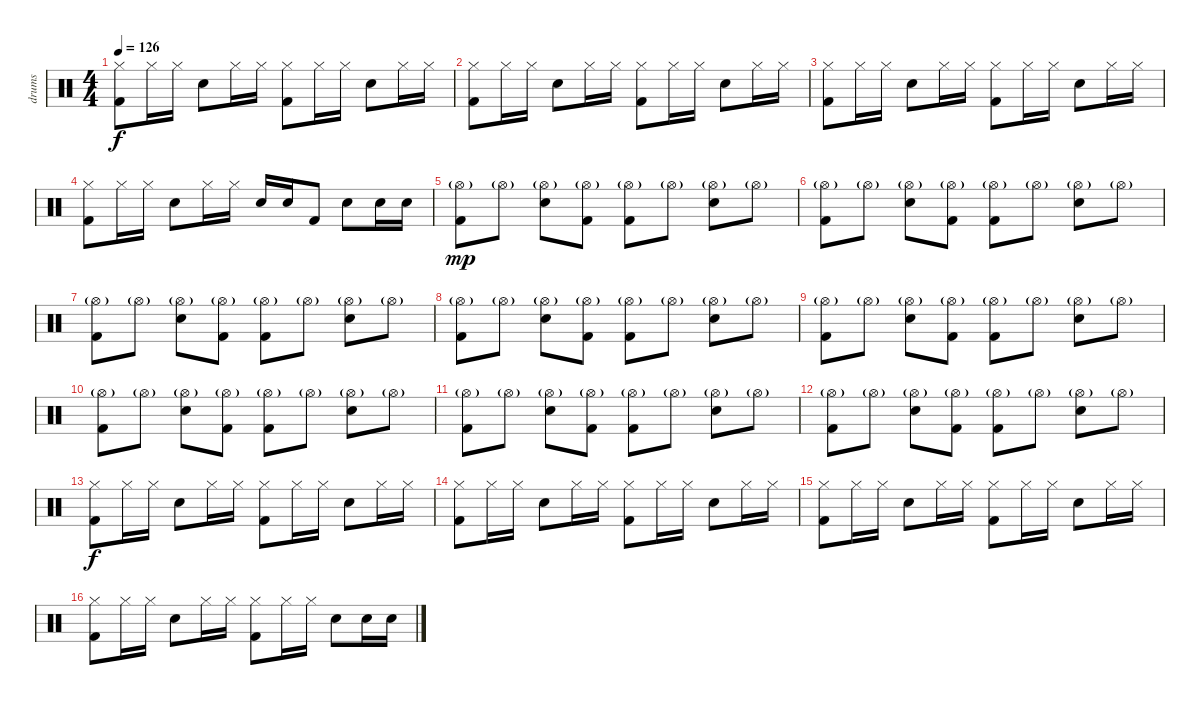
\track ("drums" "drums") {instrument percussion}
\staff {score}
\articulation defaults
\ts (4 4)
\tempo 126
\clef neutral
\ks c
("Hi-Hat (closed)" "Kick (hit) 2").8{dy f} "Hi-Hat (closed)".16 "Hi-Hat (closed)".16 "Snare (hit) 2".8 "Hi-Hat (closed)".16 "Hi-Hat (closed)".16 ("Hi-Hat (closed)" "Kick (hit) 2").8 "Hi-Hat (closed)".16 "Hi-Hat (closed)".16 "Snare (hit) 2".8 "Hi-Hat (closed)".16 "Hi-Hat (closed)".16 |
("Hi-Hat (closed)" "Kick (hit) 2").8 "Hi-Hat (closed)".16 "Hi-Hat (closed)".16 "Snare (hit) 2".8 "Hi-Hat (closed)".16 "Hi-Hat (closed)".16 ("Hi-Hat (closed)" "Kick (hit) 2").8 "Hi-Hat (closed)".16 "Hi-Hat (closed)".16 "Snare (hit) 2".8 "Hi-Hat (closed)".16 "Hi-Hat (closed)".16 |
("Hi-Hat (closed)" "Kick (hit) 2").8 "Hi-Hat (closed)".16 "Hi-Hat (closed)".16 "Snare (hit) 2".8 "Hi-Hat (closed)".16 "Hi-Hat (closed)".16 ("Hi-Hat (closed)" "Kick (hit) 2").8 "Hi-Hat (closed)".16 "Hi-Hat (closed)".16 "Snare (hit) 2".8 "Hi-Hat (closed)".16 "Hi-Hat (closed)".16 |
("Hi-Hat (closed)" "Kick (hit) 2").8 "Hi-Hat (closed)".16 "Hi-Hat (closed)".16 "Snare (hit) 2".8 "Hi-Hat (closed)".16 "Hi-Hat (closed)".16 "Snare (hit) 2".16 "Snare (hit) 2".16 "Kick (hit) 2".8 "Snare (hit) 2".8 "Snare (hit) 2".16 "Snare (hit) 2".16 |
("Hi-Hat (open)"{g} "Kick (hit) 2").8{dy mp} "Hi-Hat (open)"{g}.8 ("Hi-Hat (open)"{g} "Snare (hit) 2").8 ("Hi-Hat (open)"{g} "Kick (hit) 2").8 ("Hi-Hat (open)"{g} "Kick (hit) 2").8 "Hi-Hat (open)"{g}.8 ("Hi-Hat (open)"{g} "Snare (hit) 2").8 "Hi-Hat (open)"{g}.8 |
("Hi-Hat (open)"{g} "Kick (hit) 2").8 "Hi-Hat (open)"{g}.8 ("Hi-Hat (open)"{g} "Snare (hit) 2").8 ("Hi-Hat (open)"{g} "Kick (hit) 2").8 ("Hi-Hat (open)"{g} "Kick (hit) 2").8 "Hi-Hat (open)"{g}.8 ("Hi-Hat (open)"{g} "Snare (hit) 2").8 "Hi-Hat (open)"{g}.8 |
("Hi-Hat (open)"{g} "Kick (hit) 2").8 "Hi-Hat (open)"{g}.8 ("Hi-Hat (open)"{g} "Snare (hit) 2").8 ("Hi-Hat (open)"{g} "Kick (hit) 2").8 ("Hi-Hat (open)"{g} "Kick (hit) 2").8 "Hi-Hat (open)"{g}.8 ("Hi-Hat (open)"{g} "Snare (hit) 2").8 "Hi-Hat (open)"{g}.8 |
("Hi-Hat (open)"{g} "Kick (hit) 2").8 "Hi-Hat (open)"{g}.8 ("Hi-Hat (open)"{g} "Snare (hit) 2").8 ("Hi-Hat (open)"{g} "Kick (hit) 2").8 ("Hi-Hat (open)"{g} "Kick (hit) 2").8 "Hi-Hat (open)"{g}.8 ("Hi-Hat (open)"{g} "Snare (hit) 2").8 "Hi-Hat (open)"{g}.8 |
("Hi-Hat (open)"{g} "Kick (hit) 2").8 "Hi-Hat (open)"{g}.8 ("Hi-Hat (open)"{g} "Snare (hit) 2").8 ("Hi-Hat (open)"{g} "Kick (hit) 2").8 ("Hi-Hat (open)"{g} "Kick (hit) 2").8 "Hi-Hat (open)"{g}.8 ("Hi-Hat (open)"{g} "Snare (hit) 2").8 "Hi-Hat (open)"{g}.8 |
("Hi-Hat (open)"{g} "Kick (hit) 2").8 "Hi-Hat (open)"{g}.8 ("Hi-Hat (open)"{g} "Snare (hit) 2").8 ("Hi-Hat (open)"{g} "Kick (hit) 2").8 ("Hi-Hat (open)"{g} "Kick (hit) 2").8 "Hi-Hat (open)"{g}.8 ("Hi-Hat (open)"{g} "Snare (hit) 2").8 "Hi-Hat (open)"{g}.8 |
("Hi-Hat (open)"{g} "Kick (hit) 2").8 "Hi-Hat (open)"{g}.8 ("Hi-Hat (open)"{g} "Snare (hit) 2").8 ("Hi-Hat (open)"{g} "Kick (hit) 2").8 ("Hi-Hat (open)"{g} "Kick (hit) 2").8 "Hi-Hat (open)"{g}.8 ("Hi-Hat (open)"{g} "Snare (hit) 2").8 "Hi-Hat (open)"{g}.8 |
("Hi-Hat (open)"{g} "Kick (hit) 2").8 "Hi-Hat (open)"{g}.8 ("Hi-Hat (open)"{g} "Snare (hit) 2").8 ("Hi-Hat (open)"{g} "Kick (hit) 2").8 ("Hi-Hat (open)"{g} "Kick (hit) 2").8 "Hi-Hat (open)"{g}.8 ("Hi-Hat (open)"{g} "Snare (hit) 2").8 "Hi-Hat (open)"{g}.8 |
("Hi-Hat (closed)" "Kick (hit) 2").8{dy f} "Hi-Hat (closed)".16 "Hi-Hat (closed)".16 "Snare (hit) 2".8 "Hi-Hat (closed)".16 "Hi-Hat (closed)".16 ("Hi-Hat (closed)" "Kick (hit) 2").8 "Hi-Hat (closed)".16 "Hi-Hat (closed)".16 "Snare (hit) 2".8 "Hi-Hat (closed)".16 "Hi-Hat (closed)".16 |
("Hi-Hat (closed)" "Kick (hit) 2").8 "Hi-Hat (closed)".16 "Hi-Hat (closed)".16 "Snare (hit) 2".8 "Hi-Hat (closed)".16 "Hi-Hat (closed)".16 ("Hi-Hat (closed)" "Kick (hit) 2").8 "Hi-Hat (closed)".16 "Hi-Hat (closed)".16 "Snare (hit) 2".8 "Hi-Hat (closed)".16 "Hi-Hat (closed)".16 |
("Hi-Hat (closed)" "Kick (hit) 2").8 "Hi-Hat (closed)".16 "Hi-Hat (closed)".16 "Snare (hit) 2".8 "Hi-Hat (closed)".16 "Hi-Hat (closed)".16 ("Hi-Hat (closed)" "Kick (hit) 2").8 "Hi-Hat (closed)".16 "Hi-Hat (closed)".16 "Snare (hit) 2".8 "Hi-Hat (closed)".16 "Hi-Hat (closed)".16 |
("Hi-Hat (closed)" "Kick (hit) 2").8 "Hi-Hat (closed)".16 "Hi-Hat (closed)".16 "Snare (hit) 2".8 "Hi-Hat (closed)".16 "Hi-Hat (closed)".16 ("Hi-Hat (closed)" "Kick (hit) 2").8 "Hi-Hat (closed)".16 "Hi-Hat (closed)".16 "Snare (hit) 2".8 "Snare (hit) 2".16 "Snare (hit) 2".16
